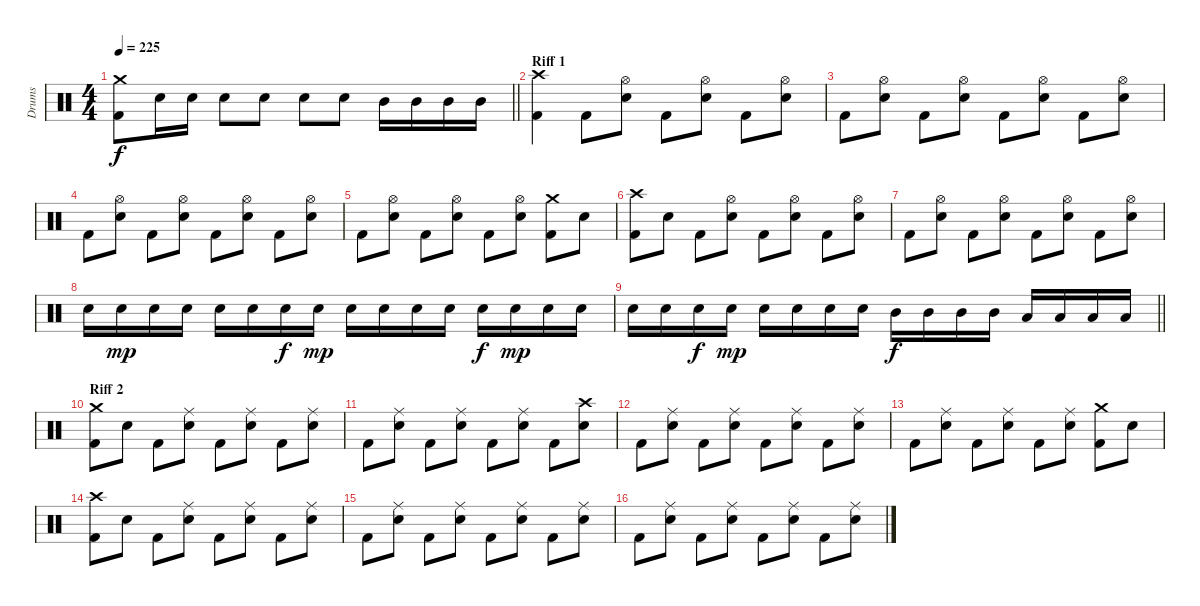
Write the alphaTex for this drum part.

\track ("Drums" "Drums") {instrument percussion}
\staff {score}
\articulation defaults
\ts (4 4)
\tempo 225
\clef neutral
\barLineRight lightlight
\ks c
("Kick (hit) 2" "Crash medium (hit)").8{dy f} "Electric Snare (hit)".16 "Electric Snare (hit)".16 "Electric Snare (hit)".8 "Electric Snare (hit)".8 "Electric Snare (hit)".8 "Electric Snare (hit)".8 "Mid Tom (hit)".16 "Mid Tom (hit)".16 "Mid Tom (hit)".16 "Mid Tom (hit)".16 |
\section ("" "Riff 1")
("Crash high (hit)" "Kick (hit) 2").4 "Kick (hit) 2".8 ("Hi-Hat (open)" "Electric Snare (hit)").8 "Kick (hit) 2".8 ("Hi-Hat (open)" "Electric Snare (hit)").8 "Kick (hit) 2".8 ("Hi-Hat (open)" "Electric Snare (hit)").8 |
"Kick (hit) 2".8 ("Hi-Hat (open)" "Electric Snare (hit)").8 "Kick (hit) 2".8 ("Hi-Hat (open)" "Electric Snare (hit)").8 "Kick (hit) 2".8 ("Hi-Hat (open)" "Electric Snare (hit)").8 "Kick (hit) 2".8 ("Hi-Hat (open)" "Electric Snare (hit)").8 |
"Kick (hit) 2".8 ("Hi-Hat (open)" "Electric Snare (hit)").8 "Kick (hit) 2".8 ("Hi-Hat (open)" "Electric Snare (hit)").8 "Kick (hit) 2".8 ("Hi-Hat (open)" "Electric Snare (hit)").8 "Kick (hit) 2".8 ("Hi-Hat (open)" "Electric Snare (hit)").8 |
"Kick (hit) 2".8 ("Hi-Hat (open)" "Electric Snare (hit)").8 "Kick (hit) 2".8 ("Hi-Hat (open)" "Electric Snare (hit)").8 "Kick (hit) 2".8 ("Hi-Hat (open)" "Electric Snare (hit)").8 ("Crash medium (hit)" "Kick (hit) 2").8 "Electric Snare (hit)".8 |
("Crash high (hit)" "Kick (hit) 2").8 "Electric Snare (hit)".8 "Kick (hit) 2".8 ("Hi-Hat (open)" "Electric Snare (hit)").8 "Kick (hit) 2".8 ("Hi-Hat (open)" "Electric Snare (hit)").8 "Kick (hit) 2".8 ("Hi-Hat (open)" "Electric Snare (hit)").8 |
"Kick (hit) 2".8 ("Hi-Hat (open)" "Electric Snare (hit)").8 "Kick (hit) 2".8 ("Hi-Hat (open)" "Electric Snare (hit)").8 "Kick (hit) 2".8 ("Hi-Hat (open)" "Electric Snare (hit)").8 "Kick (hit) 2".8 ("Hi-Hat (open)" "Electric Snare (hit)").8 |
"Electric Snare (hit)".16 "Electric Snare (hit)".16{dy mp} "Electric Snare (hit)".16 "Electric Snare (hit)".16 "Electric Snare (hit)".16 "Electric Snare (hit)".16 "Electric Snare (hit)".16{dy f} "Electric Snare (hit)".16{dy mp} "Electric Snare (hit)".16 "Electric Snare (hit)".16 "Electric Snare (hit)".16 "Electric Snare (hit)".16 "Electric Snare (hit)".16{dy f} "Electric Snare (hit)".16{dy mp} "Electric Snare (hit)".16 "Electric Snare (hit)".16 |
\barLineRight lightlight "Electric Snare (hit)".16 "Electric Snare (hit)".16 "Electric Snare (hit)".16{dy f} "Electric Snare (hit)".16{dy mp} "Electric Snare (hit)".16 "Electric Snare (hit)".16 "Electric Snare (hit)".16 "Electric Snare (hit)".16 "Mid Tom (hit)".16{dy f} "Mid Tom (hit)".16 "Mid Tom (hit)".16 "Mid Tom (hit)".16 "Low Tom (hit)".16 "Low Tom (hit)".16 "Low Tom (hit)".16 "Low Tom (hit)".16
|
\section ("" "Riff 2")
("Crash medium (hit)" "Kick (hit) 2").8 "Electric Snare (hit)".8 "Kick (hit) 2".8 ("Ride (middle)" "Electric Snare (hit)").8 "Kick (hit) 2".8 ("Ride (middle)" "Electric Snare (hit)").8 "Kick (hit) 2".8 ("Ride (middle)" "Electric Snare (hit)").8 |
"Kick (hit) 2".8 ("Ride (middle)" "Electric Snare (hit)").8 "Kick (hit) 2".8 ("Ride (middle)" "Electric Snare (hit)").8 "Kick (hit) 2".8 ("Ride (middle)" "Electric Snare (hit)").8 "Kick (hit) 2".8 ("Crash high (hit)" "Electric Snare (hit)").8 |
"Kick (hit) 2".8 ("Ride (middle)" "Electric Snare (hit)").8 "Kick (hit) 2".8 ("Ride (middle)" "Electric Snare (hit)").8 "Kick (hit) 2".8 ("Ride (middle)" "Electric Snare (hit)").8 "Kick (hit) 2".8 ("Ride (middle)" "Electric Snare (hit)").8 |
"Kick (hit) 2".8 ("Ride (middle)" "Electric Snare (hit)").8 "Kick (hit) 2".8 ("Ride (middle)" "Electric Snare (hit)").8 "Kick (hit) 2".8 ("Ride (middle)" "Electric Snare (hit)").8 ("Crash medium (hit)" "Kick (hit) 2").8 "Electric Snare (hit)".8 |
("Crash high (hit)" "Kick (hit) 2").8 "Electric Snare (hit)".8 "Kick (hit) 2".8 ("Ride (middle)" "Electric Snare (hit)").8 "Kick (hit) 2".8 ("Ride (middle)" "Electric Snare (hit)").8 "Kick (hit) 2".8 ("Ride (middle)" "Electric Snare (hit)").8 |
"Kick (hit) 2".8 ("Ride (middle)" "Electric Snare (hit)").8 "Kick (hit) 2".8 ("Ride (middle)" "Electric Snare (hit)").8 "Kick (hit) 2".8 ("Ride (middle)" "Electric Snare (hit)").8 "Kick (hit) 2".8 ("Ride (middle)" "Electric Snare (hit)").8 |
"Kick (hit) 2".8 ("Ride (middle)" "Electric Snare (hit)").8 "Kick (hit) 2".8 ("Ride (middle)" "Electric Snare (hit)").8 "Kick (hit) 2".8 ("Ride (middle)" "Electric Snare (hit)").8 "Kick (hit) 2".8 ("Ride (middle)" "Electric Snare (hit)").8
